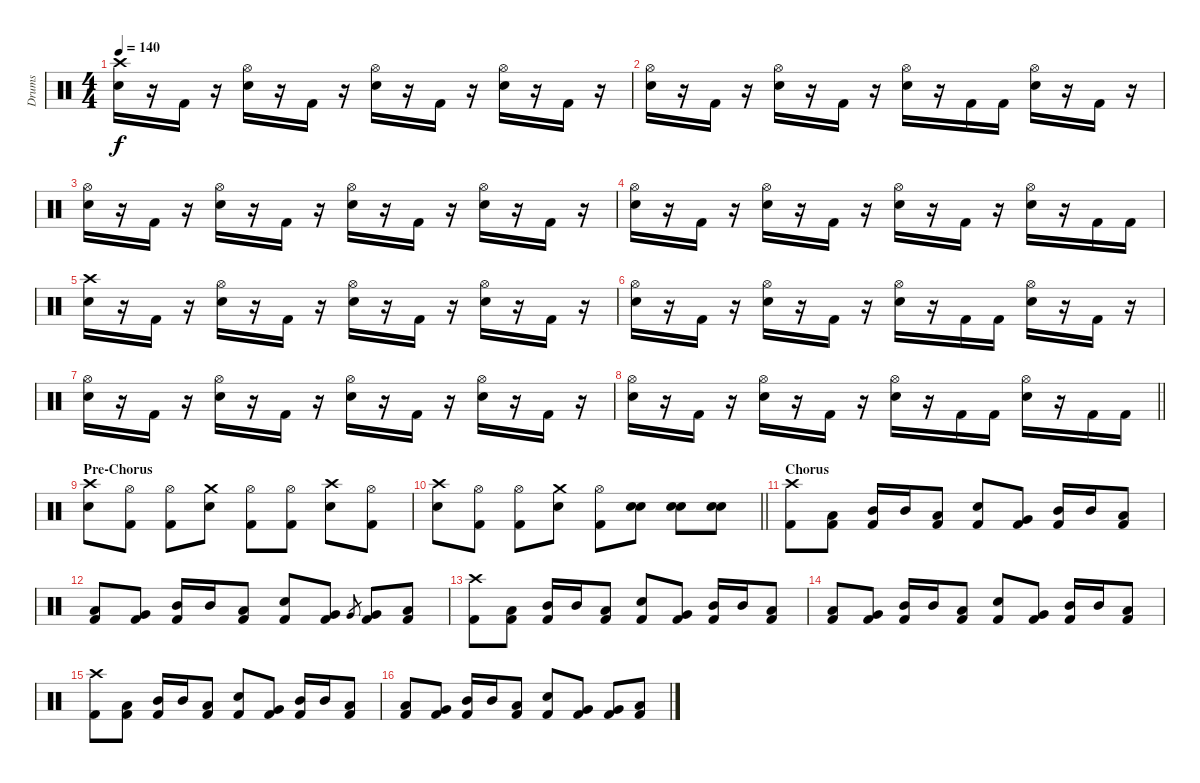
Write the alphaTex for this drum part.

\track ("Drums" "Drums") {instrument percussion}
\staff {score}
\articulation defaults
\ts (4 4)
\tempo 140
\clef neutral
\ks c
("Crash high (hit)" "Snare (hit) 2").16{dy f} r.16 "Kick (hit) 2".16 r.16 ("Hi-Hat (open)" "Snare (hit) 2").16 r.16 "Kick (hit) 2".16 r.16 ("Hi-Hat (open)" "Snare (hit) 2").16 r.16 "Kick (hit) 2".16 r.16 ("Hi-Hat (open)" "Snare (hit) 2").16 r.16 "Kick (hit) 2".16 r.16 |
("Hi-Hat (open)" "Snare (hit) 2").16 r.16 "Kick (hit) 2".16 r.16 ("Hi-Hat (open)" "Snare (hit) 2").16 r.16 "Kick (hit) 2".16 r.16 ("Hi-Hat (open)" "Snare (hit) 2").16 r.16 "Kick (hit) 2".16 "Kick (hit) 2".16 ("Hi-Hat (open)" "Snare (hit) 2").16 r.16 "Kick (hit) 2".16 r.16 |
("Hi-Hat (open)" "Snare (hit) 2").16 r.16 "Kick (hit) 2".16 r.16 ("Hi-Hat (open)" "Snare (hit) 2").16 r.16 "Kick (hit) 2".16 r.16 ("Hi-Hat (open)" "Snare (hit) 2").16 r.16 "Kick (hit) 2".16 r.16 ("Hi-Hat (open)" "Snare (hit) 2").16 r.16 "Kick (hit) 2".16 r.16 |
("Hi-Hat (open)" "Snare (hit) 2").16 r.16 "Kick (hit) 2".16 r.16 ("Hi-Hat (open)" "Snare (hit) 2").16 r.16 "Kick (hit) 2".16 r.16 ("Hi-Hat (open)" "Snare (hit) 2").16 r.16 "Kick (hit) 2".16 r.16 ("Hi-Hat (open)" "Snare (hit) 2").16 r.16 "Kick (hit) 2".16 "Kick (hit) 2".16 |
("Crash high (hit)" "Snare (hit) 2").16 r.16 "Kick (hit) 2".16 r.16 ("Hi-Hat (open)" "Snare (hit) 2").16 r.16 "Kick (hit) 2".16 r.16 ("Hi-Hat (open)" "Snare (hit) 2").16 r.16 "Kick (hit) 2".16 r.16 ("Hi-Hat (open)" "Snare (hit) 2").16 r.16 "Kick (hit) 2".16 r.16 |
("Hi-Hat (open)" "Snare (hit) 2").16 r.16 "Kick (hit) 2".16 r.16 ("Hi-Hat (open)" "Snare (hit) 2").16 r.16 "Kick (hit) 2".16 r.16 ("Hi-Hat (open)" "Snare (hit) 2").16 r.16 "Kick (hit) 2".16 "Kick (hit) 2".16 ("Hi-Hat (open)" "Snare (hit) 2").16 r.16 "Kick (hit) 2".16 r.16 |
("Hi-Hat (open)" "Snare (hit) 2").16 r.16 "Kick (hit) 2".16 r.16 ("Hi-Hat (open)" "Snare (hit) 2").16 r.16 "Kick (hit) 2".16 r.16 ("Hi-Hat (open)" "Snare (hit) 2").16 r.16 "Kick (hit) 2".16 r.16 ("Hi-Hat (open)" "Snare (hit) 2").16 r.16 "Kick (hit) 2".16 r.16 |
\barLineRight lightlight
("Hi-Hat (open)" "Snare (hit) 2").16 r.16 "Kick (hit) 2".16 r.16 ("Hi-Hat (open)" "Snare (hit) 2").16 r.16 "Kick (hit) 2".16 r.16 ("Hi-Hat (open)" "Snare (hit) 2").16 r.16 "Kick (hit) 2".16 "Kick (hit) 2".16 ("Hi-Hat (open)" "Snare (hit) 2").16 r.16 "Kick (hit) 2".16 "Kick (hit) 2".16 |
\section ("" "Pre-Chorus")
("Crash high (hit)" "Snare (hit) 2").8 ("Hi-Hat (open)" "Kick (hit) 2").8 ("Hi-Hat (open)" "Kick (hit) 2").8 ("Crash medium (hit)" "Snare (hit) 2").8 ("Hi-Hat (open)" "Kick (hit) 2").8 ("Hi-Hat (open)" "Kick (hit) 2").8 ("Crash high (hit)" "Snare (hit) 2").8 ("Hi-Hat (open)" "Kick (hit) 2").8 |
\barLineRight lightlight
("Crash high (hit)" "Snare (hit) 2").8 ("Hi-Hat (open)" "Kick (hit) 2").8 ("Hi-Hat (open)" "Kick (hit) 2").8 ("Crash medium (hit)" "Snare (hit) 2").8 ("Hi-Hat (open)" "Kick (hit) 2").8 ("Snare (hit) 2" "Snare (hit) 2").8 ("Snare (hit) 2" "Snare (hit) 2").8 ("Snare (hit) 2" "Snare (hit) 2").8 |
\section ("" "Chorus")
("Crash high (hit)" "Kick (hit) 2").8 ("Low Floor Tom (hit)" "Kick (hit) 2").8 ("Mid Tom (hit)" "Kick (hit) 2").16 "Mid Tom (hit)".16 ("Low Tom (hit)" "Kick (hit) 2").8 ("Snare (hit) 2" "Kick (hit) 2").8 ("Very Low Tom (hit)" "Kick (hit) 2").8 ("Mid Tom (hit)" "Kick (hit) 2").16 "Mid Tom (hit)".16 ("Low Tom (hit)" "Kick (hit) 2").8 |
("Low Floor Tom (hit)" "Kick (hit) 2").8 ("Very Low Tom (hit)" "Kick (hit) 2").8 ("Mid Tom (hit)" "Kick (hit) 2").16 "Mid Tom (hit)".16 ("Low Tom (hit)" "Kick (hit) 2").8 ("Snare (hit) 2" "Kick (hit) 2").8 ("Very Low Tom (hit)" "Kick (hit) 2").8 "Very Low Tom (hit)".8{gr} ("Very Low Tom (hit)" "Kick (hit) 2").8 ("Low Tom (hit)" "Kick (hit) 2").8 |
("Crash high (hit)" "Kick (hit) 2").8 ("Low Floor Tom (hit)" "Kick (hit) 2").8 ("Mid Tom (hit)" "Kick (hit) 2").16 "Mid Tom (hit)".16 ("Low Tom (hit)" "Kick (hit) 2").8 ("Snare (hit) 2" "Kick (hit) 2").8 ("Very Low Tom (hit)" "Kick (hit) 2").8 ("Mid Tom (hit)" "Kick (hit) 2").16 "Mid Tom (hit)".16 ("Low Tom (hit)" "Kick (hit) 2").8 |
("Low Floor Tom (hit)" "Kick (hit) 2").8 ("Very Low Tom (hit)" "Kick (hit) 2").8 ("Mid Tom (hit)" "Kick (hit) 2").16 "Mid Tom (hit)".16 ("Low Tom (hit)" "Kick (hit) 2").8 ("Snare (hit) 2" "Kick (hit) 2").8 ("Very Low Tom (hit)" "Kick (hit) 2").8 ("Mid Tom (hit)" "Kick (hit) 2").16 "Mid Tom (hit)".16 ("Low Tom (hit)" "Kick (hit) 2").8 |
("Crash high (hit)" "Kick (hit) 2").8 ("Low Floor Tom (hit)" "Kick (hit) 2").8 ("Mid Tom (hit)" "Kick (hit) 2").16 "Mid Tom (hit)".16 ("Low Tom (hit)" "Kick (hit) 2").8 ("Snare (hit) 2" "Kick (hit) 2").8 ("Very Low Tom (hit)" "Kick (hit) 2").8 ("Mid Tom (hit)" "Kick (hit) 2").16 "Mid Tom (hit)".16 ("Low Tom (hit)" "Kick (hit) 2").8 |
("Low Floor Tom (hit)" "Kick (hit) 2").8 ("Very Low Tom (hit)" "Kick (hit) 2").8 ("Mid Tom (hit)" "Kick (hit) 2").16 "Mid Tom (hit)".16 ("Low Tom (hit)" "Kick (hit) 2").8 ("Snare (hit) 2" "Kick (hit) 2").8 ("Very Low Tom (hit)" "Kick (hit) 2").8 ("Very Low Tom (hit)" "Kick (hit) 2").8 ("Low Tom (hit)" "Kick (hit) 2").8
